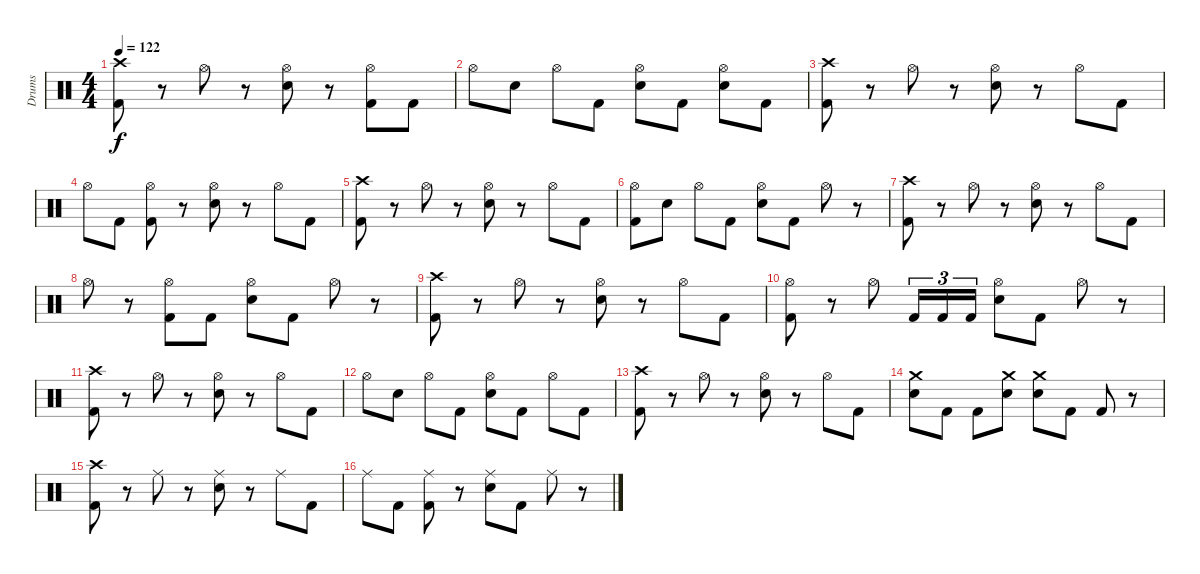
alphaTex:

\track ("Drums" "Drums") {instrument percussion}
\staff {score}
\articulation defaults
\ts (4 4)
\tempo 122
\clef neutral
\ks c
("Crash high (hit)" "Kick (hit) 2").8{dy f} r.8 "Hi-Hat (open)".8 r.8 ("Hi-Hat (open)" "Electric Snare (hit)").8 r.8 ("Hi-Hat (open)" "Kick (hit) 2").8 "Kick (hit) 2".8 |
"Hi-Hat (open)".8 "Electric Snare (hit)".8 "Hi-Hat (open)".8 "Kick (hit) 2".8 ("Hi-Hat (open)" "Electric Snare (hit)").8 "Kick (hit) 2".8 ("Hi-Hat (open)" "Electric Snare (hit)").8 "Kick (hit) 2".8 |
("Crash high (hit)" "Kick (hit) 2").8 r.8 "Hi-Hat (open)".8 r.8 ("Hi-Hat (open)" "Electric Snare (hit)").8 r.8 "Hi-Hat (open)".8 "Kick (hit) 2".8 |
"Hi-Hat (open)".8 "Kick (hit) 2".8 ("Hi-Hat (open)" "Kick (hit) 2").8 r.8 ("Hi-Hat (open)" "Electric Snare (hit)").8 r.8 "Hi-Hat (open)".8 "Kick (hit) 2".8 |
("Crash high (hit)" "Kick (hit) 2").8 r.8 "Hi-Hat (open)".8 r.8 ("Hi-Hat (open)" "Electric Snare (hit)").8 r.8 "Hi-Hat (open)".8 "Kick (hit) 2".8 |
("Hi-Hat (open)" "Kick (hit) 2").8 "Electric Snare (hit)".8 "Hi-Hat (open)".8 "Kick (hit) 2".8 ("Hi-Hat (open)" "Electric Snare (hit)").8 "Kick (hit) 2".8 "Hi-Hat (open)".8 r.8 |
("Crash high (hit)" "Kick (hit) 2").8 r.8 "Hi-Hat (open)".8 r.8 ("Hi-Hat (open)" "Electric Snare (hit)").8 r.8 "Hi-Hat (open)".8 "Kick (hit) 2".8 |
"Hi-Hat (open)".8 r.8 ("Hi-Hat (open)" "Kick (hit) 2").8 "Kick (hit) 2".8 ("Hi-Hat (open)" "Electric Snare (hit)").8 "Kick (hit) 2".8 "Hi-Hat (open)".8 r.8 |
("Crash high (hit)" "Kick (hit) 2").8 r.8 "Hi-Hat (open)".8 r.8 ("Hi-Hat (open)" "Electric Snare (hit)").8 r.8 "Hi-Hat (open)".8 "Kick (hit) 2".8 |
("Hi-Hat (open)" "Kick (hit) 2").8 r.8 "Hi-Hat (open)".8 "Kick (hit) 2".16{tu (3 2)} "Kick (hit) 2".16{tu (3 2)} "Kick (hit) 2".16{tu (3 2)} ("Hi-Hat (open)" "Electric Snare (hit)").8 "Kick (hit) 2".8 "Hi-Hat (open)".8 r.8 |
("Crash high (hit)" "Kick (hit) 2").8 r.8 "Hi-Hat (open)".8 r.8 ("Hi-Hat (open)" "Electric Snare (hit)").8 r.8 "Hi-Hat (open)".8 "Kick (hit) 2".8 |
"Hi-Hat (open)".8 "Electric Snare (hit)".8 "Hi-Hat (open)".8 "Kick (hit) 2".8 ("Hi-Hat (open)" "Electric Snare (hit)").8 "Kick (hit) 2".8 "Hi-Hat (open)".8 "Kick (hit) 2".8 |
("Crash high (hit)" "Kick (hit) 2").8 r.8 "Hi-Hat (open)".8 r.8 ("Hi-Hat (open)" "Electric Snare (hit)").8 r.8 "Hi-Hat (open)".8 "Kick (hit) 2".8 |
("Crash medium (hit)" "Electric Snare (hit)").8 "Kick (hit) 2".8 "Kick (hit) 2".8 ("Crash medium (hit)" "Electric Snare (hit)").8 ("Crash medium (hit)" "Electric Snare (hit)").8 "Kick (hit) 2".8 "Kick (hit) 2".8 r.8 |
("Crash high (hit)" "Kick (hit) 2").8 r.8 "Ride (middle)".8 r.8 ("Ride (middle)" "Electric Snare (hit)").8 r.8 "Ride (middle)".8 "Kick (hit) 2".8 |
"Ride (middle)".8 "Kick (hit) 2".8 ("Ride (middle)" "Kick (hit) 2").8 r.8 ("Ride (middle)" "Electric Snare (hit)").8 "Kick (hit) 2".8 "Ride (middle)".8 r.8
